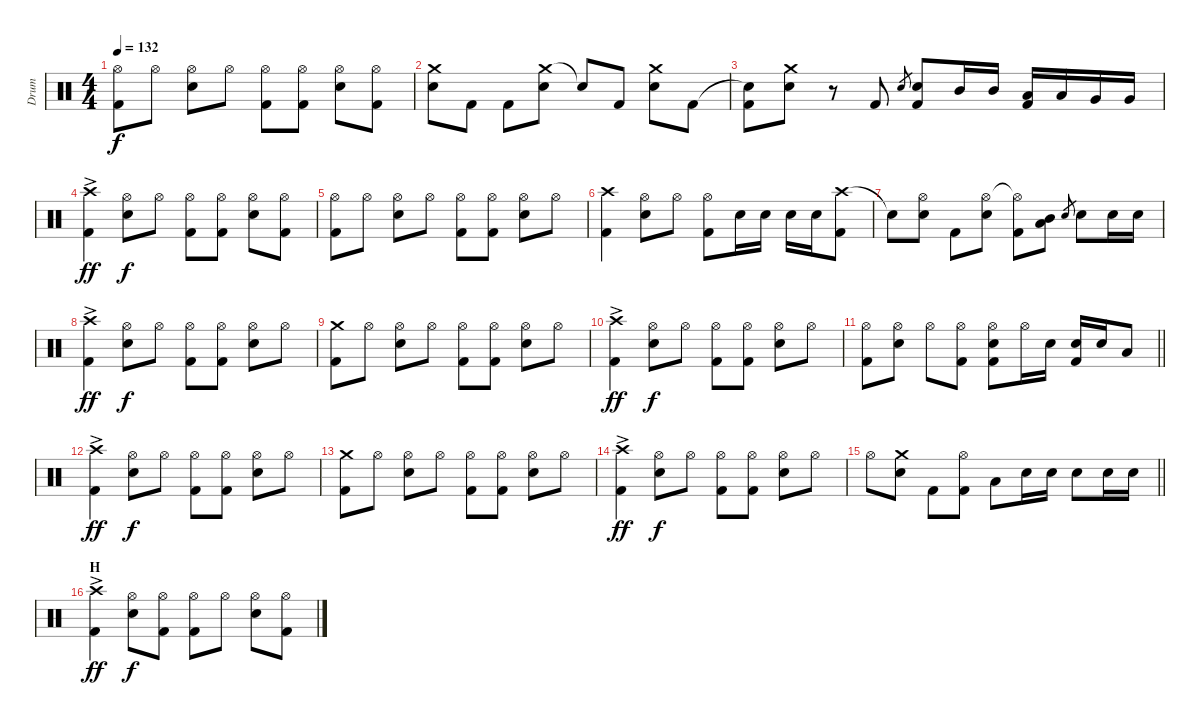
\track ("Drum" "Drum") {instrument percussion}
\staff {score}
\articulation defaults
\ts (4 4)
\tempo 132
\clef neutral
\ks c
("Hi-Hat (open)" "Kick (hit) 2").8{dy f} "Hi-Hat (open)".8 ("Hi-Hat (open)" "Electric Snare (hit)").8 "Hi-Hat (open)".8 ("Hi-Hat (open)" "Kick (hit) 2").8 ("Hi-Hat (open)" "Kick (hit) 2").8 ("Hi-Hat (open)" "Electric Snare (hit)").8 ("Hi-Hat (open)" "Kick (hit) 2").8 |
("Crash medium (hit)" "Electric Snare (hit)").8 "Kick (hit) 2".8 "Kick (hit) 2".8 ("Crash medium (hit)" "Electric Snare (hit)").8 "Snare (hit)"{t}.8 "Kick (hit) 2".8 ("Crash medium (hit)" "Electric Snare (hit)").8 "Kick (hit) 2".8 |
("Snare (hit)"{t} "Kick (hit) 2").8 ("Crash medium (hit)" "Electric Snare (hit)").8 r.8 "Kick (hit) 2".8 "Electric Snare (hit)".8{gr} ("Electric Snare (hit)" "Kick (hit) 2").8 "Mid Tom (hit)".16 "Mid Tom (hit)".16 ("Low Tom (hit)" "Kick (hit) 2").16 "Low Tom (hit)".16 "Very Low Tom (hit)".16 "Very Low Tom (hit)".16 |
("Crash high (hit)"{ac} "Kick (hit) 2").4{dy ff} ("Hi-Hat (open)" "Electric Snare (hit)").8{dy f} "Hi-Hat (open)".8 ("Hi-Hat (open)" "Kick (hit) 2").8 ("Hi-Hat (open)" "Kick (hit) 2").8 ("Hi-Hat (open)" "Electric Snare (hit)").8 ("Hi-Hat (open)" "Kick (hit) 2").8 |
("Hi-Hat (open)" "Kick (hit) 2").8 "Hi-Hat (open)".8 ("Hi-Hat (open)" "Electric Snare (hit)").8 "Hi-Hat (open)".8 ("Hi-Hat (open)" "Kick (hit) 2").8 ("Hi-Hat (open)" "Kick (hit) 2").8 ("Hi-Hat (open)" "Electric Snare (hit)").8 "Hi-Hat (open)".8 |
("Crash high (hit)" "Kick (hit) 2").4 ("Hi-Hat (open)" "Electric Snare (hit)").8 "Hi-Hat (open)".8 ("Hi-Hat (open)" "Kick (hit) 2").8 "Electric Snare (hit)".16 "Electric Snare (hit)".16 "Electric Snare (hit)".16 "Electric Snare (hit)".16 ("Crash high (hit)" "Kick (hit) 2").8 |
"Snare (hit)"{t}.8 ("Hi-Hat (open)" "Electric Snare (hit)").8 "Kick (hit) 2".8 ("Hi-Hat (open)" "Electric Snare (hit)").8 ("Hi-Hat (open)"{t} "Kick (hit) 2").8 ("Mid Tom (hit)" "Low Tom (hit)").8 "Electric Snare (hit)".8{gr} "Electric Snare (hit)".8 "Electric Snare (hit)".16 "Electric Snare (hit)".16 |
("Crash high (hit)"{ac} "Kick (hit) 2").4{dy ff} ("Hi-Hat (open)" "Electric Snare (hit)").8{dy f} "Hi-Hat (open)".8 ("Hi-Hat (open)" "Kick (hit) 2").8 ("Hi-Hat (open)" "Kick (hit) 2").8 ("Hi-Hat (open)" "Electric Snare (hit)").8 "Hi-Hat (open)".8 |
("Crash medium (hit)" "Kick (hit) 2").8 "Hi-Hat (open)".8 ("Hi-Hat (open)" "Electric Snare (hit)").8 "Hi-Hat (open)".8 ("Hi-Hat (open)" "Kick (hit) 2").8 ("Hi-Hat (open)" "Kick (hit) 2").8 ("Hi-Hat (open)" "Electric Snare (hit)").8 "Hi-Hat (open)".8 |
("Crash high (hit)"{ac} "Kick (hit) 2").4{dy ff} ("Hi-Hat (open)" "Electric Snare (hit)").8{dy f} "Hi-Hat (open)".8 ("Hi-Hat (open)" "Kick (hit) 2").8 ("Hi-Hat (open)" "Kick (hit) 2").8 ("Hi-Hat (open)" "Electric Snare (hit)").8 "Hi-Hat (open)".8 |
\barLineRight lightlight
("Hi-Hat (open)" "Kick (hit) 2").8 ("Hi-Hat (open)" "Electric Snare (hit)").8 "Hi-Hat (open)".8 ("Hi-Hat (open)" "Kick (hit) 2").8 ("Hi-Hat (open)" "Electric Snare (hit)" "Kick (hit) 2").8 "Hi-Hat (open)".16 "Electric Snare (hit)".16 ("Electric Snare (hit)" "Kick (hit) 2").16 "Electric Snare (hit)".16 "Low Tom (hit)".8 |
("Crash high (hit)"{ac} "Kick (hit) 2").4{dy ff} ("Hi-Hat (open)" "Electric Snare (hit)").8{dy f} "Hi-Hat (open)".8 ("Hi-Hat (open)" "Kick (hit) 2").8 ("Hi-Hat (open)" "Kick (hit) 2").8 ("Hi-Hat (open)" "Electric Snare (hit)").8 "Hi-Hat (open)".8 |
("Crash medium (hit)" "Kick (hit) 2").8 "Hi-Hat (open)".8 ("Hi-Hat (open)" "Electric Snare (hit)").8 "Hi-Hat (open)".8 ("Hi-Hat (open)" "Kick (hit) 2").8 ("Hi-Hat (open)" "Kick (hit) 2").8 ("Hi-Hat (open)" "Electric Snare (hit)").8 "Hi-Hat (open)".8 |
("Crash high (hit)"{ac} "Kick (hit) 2").4{dy ff} ("Hi-Hat (open)" "Electric Snare (hit)").8{dy f} "Hi-Hat (open)".8 ("Hi-Hat (open)" "Kick (hit) 2").8 ("Hi-Hat (open)" "Kick (hit) 2").8 ("Hi-Hat (open)" "Electric Snare (hit)").8 "Hi-Hat (open)".8 |
\barLineRight lightlight "Hi-Hat (open)".8
("Crash medium (hit)" "Electric Snare (hit)").8 "Kick (hit) 2".8 ("Hi-Hat (open)" "Kick (hit) 2").8 "Low Tom (hit)".8 "Electric Snare (hit)".16 "Electric Snare (hit)".16 "Electric Snare (hit)".8 "Electric Snare (hit)".16 "Electric Snare (hit)".16 |
\section ("" "H")
("Crash high (hit)"{ac} "Kick (hit) 2").4{dy ff} ("Hi-Hat (open)" "Electric Snare (hit)").8{dy f} ("Hi-Hat (open)" "Kick (hit) 2").8 ("Hi-Hat (open)" "Kick (hit) 2").8 "Hi-Hat (open)".8 ("Hi-Hat (open)" "Electric Snare (hit)").8 ("Hi-Hat (open)" "Kick (hit) 2").8
